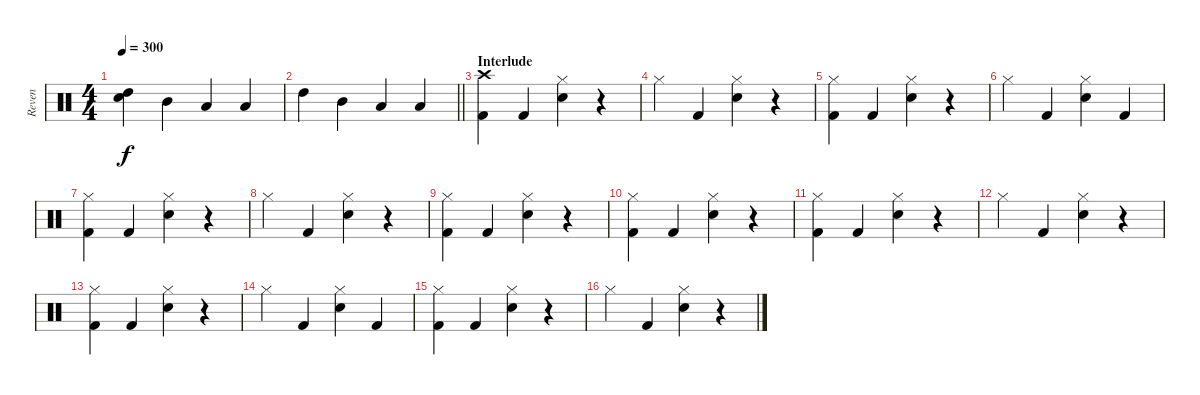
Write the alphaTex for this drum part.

\track ("Reven" "Reven") {instrument percussion}
\staff {score}
\articulation defaults
\ts (4 4)
\tempo 300
\clef neutral
\ks c
("High Tom (hit)" "Electric Snare (hit)").4{dy f} "Mid Tom (hit)".4 "Low Tom (hit)".4 "Low Floor Tom (hit)".4 |
\barLineRight lightlight "High Tom (hit)".4 "Mid Tom (hit)".4 "Low Tom (hit)".4 "Low Floor Tom (hit)".4
|
\section ("" "Interlude")
("Crash high (hit)" "Kick (hit) 2").4 "Kick (hit) 2".4 ("Hi-Hat (closed)" "Electric Snare (hit)").4 r.4 |
"Hi-Hat (closed)".4 "Kick (hit) 2".4 ("Hi-Hat (closed)" "Electric Snare (hit)").4 r.4 |
("Hi-Hat (closed)" "Kick (hit) 2").4 "Kick (hit) 2".4 ("Hi-Hat (closed)" "Electric Snare (hit)").4 r.4 |
"Hi-Hat (closed)".4 "Kick (hit) 2".4 ("Hi-Hat (closed)" "Electric Snare (hit)").4 "Kick (hit) 2".4 |
("Hi-Hat (closed)" "Kick (hit) 2").4 "Kick (hit) 2".4 ("Hi-Hat (closed)" "Electric Snare (hit)").4 r.4 |
"Hi-Hat (closed)".4 "Kick (hit) 2".4 ("Hi-Hat (closed)" "Electric Snare (hit)").4 r.4 |
("Hi-Hat (closed)" "Kick (hit) 2").4 "Kick (hit) 2".4 ("Hi-Hat (closed)" "Electric Snare (hit)").4 r.4 |
("Hi-Hat (closed)" "Kick (hit) 2").4 "Kick (hit) 2".4 ("Hi-Hat (closed)" "Electric Snare (hit)").4 r.4 |
("Hi-Hat (closed)" "Kick (hit) 2").4 "Kick (hit) 2".4 ("Hi-Hat (closed)" "Electric Snare (hit)").4 r.4 |
"Hi-Hat (closed)".4 "Kick (hit) 2".4 ("Hi-Hat (closed)" "Electric Snare (hit)").4 r.4 |
("Hi-Hat (closed)" "Kick (hit) 2").4 "Kick (hit) 2".4 ("Hi-Hat (closed)" "Electric Snare (hit)").4 r.4 |
"Hi-Hat (closed)".4 "Kick (hit) 2".4 ("Hi-Hat (closed)" "Electric Snare (hit)").4 "Kick (hit) 2".4 |
("Hi-Hat (closed)" "Kick (hit) 2").4 "Kick (hit) 2".4 ("Hi-Hat (closed)" "Electric Snare (hit)").4 r.4 |
"Hi-Hat (closed)".4 "Kick (hit) 2".4 ("Hi-Hat (closed)" "Electric Snare (hit)").4 r.4
